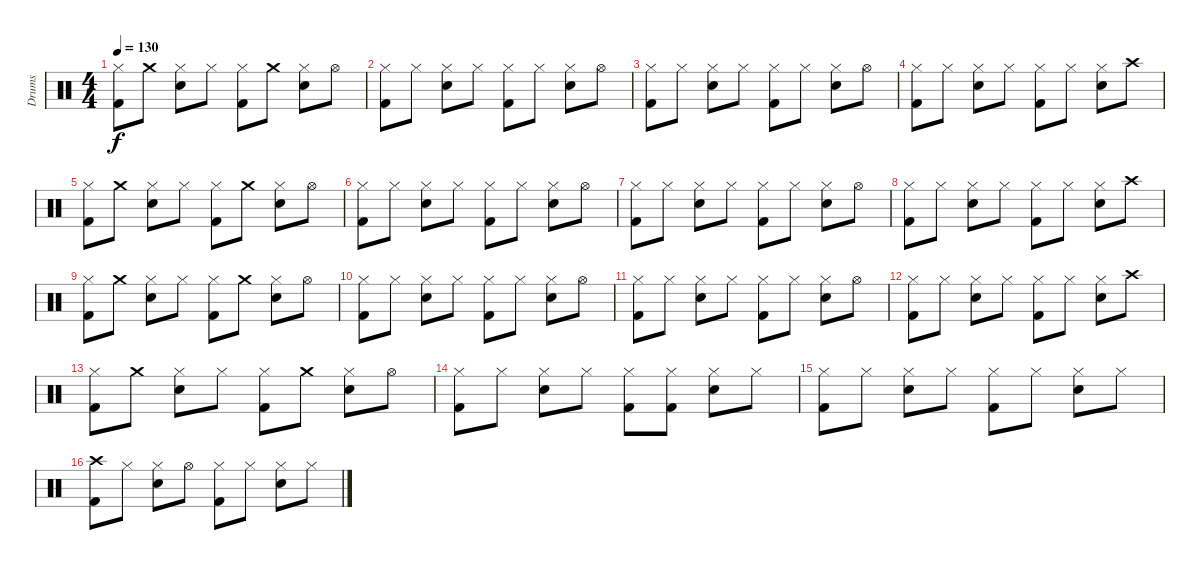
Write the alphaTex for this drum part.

\track ("Drums" "Drums") {instrument percussion}
\staff {score}
\articulation defaults
\ts (4 4)
\tempo 130
\clef neutral
\ks c
("Hi-Hat (closed)" "Kick (hit) 2").8{dy f} "Crash medium (hit)".8 ("Hi-Hat (closed)" "Electric Snare (hit)").8 "Hi-Hat (closed)".8 ("Hi-Hat (closed)" "Kick (hit) 2").8 "Crash medium (hit)".8 ("Hi-Hat (closed)" "Electric Snare (hit)").8 "Hi-Hat (open)".8 |
("Hi-Hat (closed)" "Kick (hit) 2").8 "Hi-Hat (closed)".8 ("Hi-Hat (closed)" "Electric Snare (hit)").8 "Hi-Hat (closed)".8 ("Hi-Hat (closed)" "Kick (hit) 2").8 "Hi-Hat (closed)".8 ("Hi-Hat (closed)" "Electric Snare (hit)").8 "Hi-Hat (open)".8 |
("Hi-Hat (closed)" "Kick (hit) 2").8 "Hi-Hat (closed)".8 ("Hi-Hat (closed)" "Electric Snare (hit)").8 "Hi-Hat (closed)".8 ("Hi-Hat (closed)" "Kick (hit) 2").8 "Hi-Hat (closed)".8 ("Hi-Hat (closed)" "Electric Snare (hit)").8 "Hi-Hat (open)".8 |
("Hi-Hat (closed)" "Kick (hit) 2").8 "Hi-Hat (closed)".8 ("Hi-Hat (closed)" "Electric Snare (hit)").8 "Hi-Hat (closed)".8 ("Hi-Hat (closed)" "Kick (hit) 2").8 "Hi-Hat (closed)".8 ("Hi-Hat (closed)" "Electric Snare (hit)").8 "Crash high (hit)".8 |
("Hi-Hat (closed)" "Kick (hit) 2").8 "Crash medium (hit)".8 ("Hi-Hat (closed)" "Electric Snare (hit)").8 "Hi-Hat (closed)".8 ("Hi-Hat (closed)" "Kick (hit) 2").8 "Crash medium (hit)".8 ("Hi-Hat (closed)" "Electric Snare (hit)").8 "Hi-Hat (open)".8 |
("Hi-Hat (closed)" "Kick (hit) 2").8 "Hi-Hat (closed)".8 ("Hi-Hat (closed)" "Electric Snare (hit)").8 "Hi-Hat (closed)".8 ("Hi-Hat (closed)" "Kick (hit) 2").8 "Hi-Hat (closed)".8 ("Hi-Hat (closed)" "Electric Snare (hit)").8 "Hi-Hat (open)".8 |
("Hi-Hat (closed)" "Kick (hit) 2").8 "Hi-Hat (closed)".8 ("Hi-Hat (closed)" "Electric Snare (hit)").8 "Hi-Hat (closed)".8 ("Hi-Hat (closed)" "Kick (hit) 2").8 "Hi-Hat (closed)".8 ("Hi-Hat (closed)" "Electric Snare (hit)").8 "Hi-Hat (open)".8 |
("Hi-Hat (closed)" "Kick (hit) 2").8 "Hi-Hat (closed)".8 ("Hi-Hat (closed)" "Electric Snare (hit)").8 "Hi-Hat (closed)".8 ("Hi-Hat (closed)" "Kick (hit) 2").8 "Hi-Hat (closed)".8 ("Hi-Hat (closed)" "Electric Snare (hit)").8 "Crash high (hit)".8 |
("Hi-Hat (closed)" "Kick (hit) 2").8 "Crash medium (hit)".8 ("Hi-Hat (closed)" "Electric Snare (hit)").8 "Hi-Hat (closed)".8 ("Hi-Hat (closed)" "Kick (hit) 2").8 "Crash medium (hit)".8 ("Hi-Hat (closed)" "Electric Snare (hit)").8 "Hi-Hat (open)".8 |
("Hi-Hat (closed)" "Kick (hit) 2").8 "Hi-Hat (closed)".8 ("Hi-Hat (closed)" "Electric Snare (hit)").8 "Hi-Hat (closed)".8 ("Hi-Hat (closed)" "Kick (hit) 2").8 "Hi-Hat (closed)".8 ("Hi-Hat (closed)" "Electric Snare (hit)").8 "Hi-Hat (open)".8 |
("Hi-Hat (closed)" "Kick (hit) 2").8 "Hi-Hat (closed)".8 ("Hi-Hat (closed)" "Electric Snare (hit)").8 "Hi-Hat (closed)".8 ("Hi-Hat (closed)" "Kick (hit) 2").8 "Hi-Hat (closed)".8 ("Hi-Hat (closed)" "Electric Snare (hit)").8 "Hi-Hat (open)".8 |
("Hi-Hat (closed)" "Kick (hit) 2").8 "Hi-Hat (closed)".8 ("Hi-Hat (closed)" "Electric Snare (hit)").8 "Hi-Hat (closed)".8 ("Hi-Hat (closed)" "Kick (hit) 2").8 "Hi-Hat (closed)".8 ("Hi-Hat (closed)" "Electric Snare (hit)").8 "Crash high (hit)".8 |
("Hi-Hat (closed)" "Kick (hit) 2").8 "Crash medium (hit)".8 ("Hi-Hat (closed)" "Electric Snare (hit)").8 "Hi-Hat (closed)".8 ("Hi-Hat (closed)" "Kick (hit) 2").8 "Crash medium (hit)".8 ("Hi-Hat (closed)" "Electric Snare (hit)").8 "Hi-Hat (open)".8 |
("Hi-Hat (closed)" "Kick (hit) 2").8 "Hi-Hat (closed)".8 ("Hi-Hat (closed)" "Electric Snare (hit)").8 "Hi-Hat (closed)".8 ("Hi-Hat (closed)" "Kick (hit) 2").8 ("Hi-Hat (closed)" "Kick (hit) 2").8 ("Hi-Hat (closed)" "Electric Snare (hit)").8 "Hi-Hat (closed)".8 |
("Hi-Hat (closed)" "Kick (hit) 2").8 "Hi-Hat (closed)".8 ("Hi-Hat (closed)" "Electric Snare (hit)").8 "Hi-Hat (closed)".8 ("Hi-Hat (closed)" "Kick (hit) 2").8 "Hi-Hat (closed)".8 ("Hi-Hat (closed)" "Electric Snare (hit)").8 "Hi-Hat (closed)".8 |
("Crash high (hit)" "Kick (hit) 2").8 "Hi-Hat (closed)".8 ("Hi-Hat (closed)" "Electric Snare (hit)").8 "Hi-Hat (open)".8 ("Hi-Hat (closed)" "Kick (hit) 2").8 "Hi-Hat (closed)".8 ("Hi-Hat (closed)" "Electric Snare (hit)").8 "Hi-Hat (closed)".8
